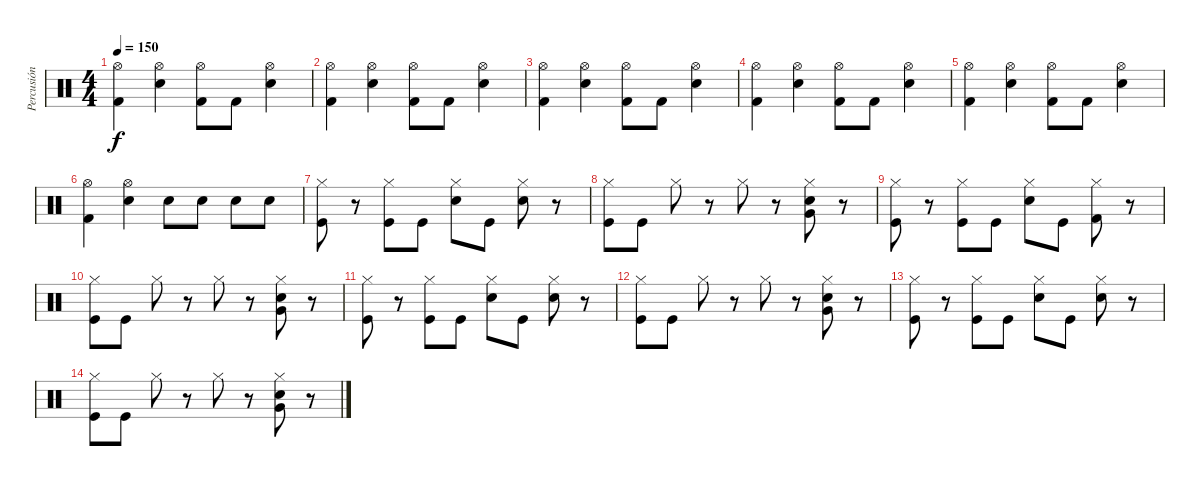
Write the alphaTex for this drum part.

\track ("Percusión" "Percusión") {instrument percussion}
\staff {score}
\articulation defaults
\ts (4 4)
\tempo 150
\clef neutral
\ks c
("Hi-Hat (open)" "Kick (hit) 2").4{dy f} ("Hi-Hat (open)" "Electric Snare (hit)").4 ("Hi-Hat (open)" "Kick (hit) 2").8 "Kick (hit) 2".8 ("Hi-Hat (open)" "Electric Snare (hit)").4 |
("Hi-Hat (open)" "Kick (hit) 2").4 ("Hi-Hat (open)" "Electric Snare (hit)").4 ("Hi-Hat (open)" "Kick (hit) 2").8 "Kick (hit) 2".8 ("Hi-Hat (open)" "Electric Snare (hit)").4 |
("Hi-Hat (open)" "Kick (hit) 2").4 ("Hi-Hat (open)" "Electric Snare (hit)").4 ("Hi-Hat (open)" "Kick (hit) 2").8 "Kick (hit) 2".8 ("Hi-Hat (open)" "Electric Snare (hit)").4 |
("Hi-Hat (open)" "Kick (hit) 2").4 ("Hi-Hat (open)" "Electric Snare (hit)").4 ("Hi-Hat (open)" "Kick (hit) 2").8 "Kick (hit) 2".8 ("Hi-Hat (open)" "Electric Snare (hit)").4 |
("Hi-Hat (open)" "Kick (hit) 2").4 ("Hi-Hat (open)" "Electric Snare (hit)").4 ("Hi-Hat (open)" "Kick (hit) 2").8 "Kick (hit) 2".8 ("Hi-Hat (open)" "Electric Snare (hit)").4 |
("Hi-Hat (open)" "Kick (hit) 2").4 ("Hi-Hat (open)" "Electric Snare (hit)").4 "Electric Snare (hit)".8 "Electric Snare (hit)".8 "Electric Snare (hit)".8 "Electric Snare (hit)".8 |
("Hi-Hat (closed)" "Kick (hit)").8 r.8 ("Hi-Hat (closed)" "Kick (hit)").8 "Kick (hit)".8 ("Hi-Hat (closed)" "Snare (hit) 2").8 "Kick (hit)".8 ("Hi-Hat (closed)" "Snare (hit) 2").8 r.8 |
("Hi-Hat (closed)" "Kick (hit)").8 "Kick (hit)".8 "Hi-Hat (closed)".8 r.8 "Hi-Hat (closed)".8 r.8 ("Hi-Hat (closed)" "Very Low Tom (hit)" "Snare (hit) 2").8 r.8 |
("Hi-Hat (closed)" "Kick (hit)").8 r.8 ("Hi-Hat (closed)" "Kick (hit)").8 "Kick (hit)".8 ("Hi-Hat (closed)" "Snare (hit) 2").8 "Kick (hit)".8 ("Hi-Hat (closed)" "Kick (hit) 2").8 r.8 |
("Hi-Hat (closed)" "Kick (hit)").8 "Kick (hit)".8 "Hi-Hat (closed)".8 r.8 "Hi-Hat (closed)".8 r.8 ("Hi-Hat (closed)" "Very Low Tom (hit)" "Snare (hit) 2").8 r.8 |
("Hi-Hat (closed)" "Kick (hit)").8 r.8 ("Hi-Hat (closed)" "Kick (hit)").8 "Kick (hit)".8 ("Hi-Hat (closed)" "Snare (hit) 2").8 "Kick (hit)".8 ("Hi-Hat (closed)" "Snare (hit) 2").8 r.8 |
("Hi-Hat (closed)" "Kick (hit)").8 "Kick (hit)".8 "Hi-Hat (closed)".8 r.8 "Hi-Hat (closed)".8 r.8 ("Hi-Hat (closed)" "Very Low Tom (hit)" "Snare (hit) 2").8 r.8 |
("Hi-Hat (closed)" "Kick (hit)").8 r.8 ("Hi-Hat (closed)" "Kick (hit)").8 "Kick (hit)".8 ("Hi-Hat (closed)" "Snare (hit) 2").8 "Kick (hit)".8 ("Hi-Hat (closed)" "Snare (hit) 2").8 r.8 |
("Hi-Hat (closed)" "Kick (hit)").8 "Kick (hit)".8 "Hi-Hat (closed)".8 r.8 "Hi-Hat (closed)".8 r.8 ("Hi-Hat (closed)" "Very Low Tom (hit)" "Snare (hit) 2").8 r.8
